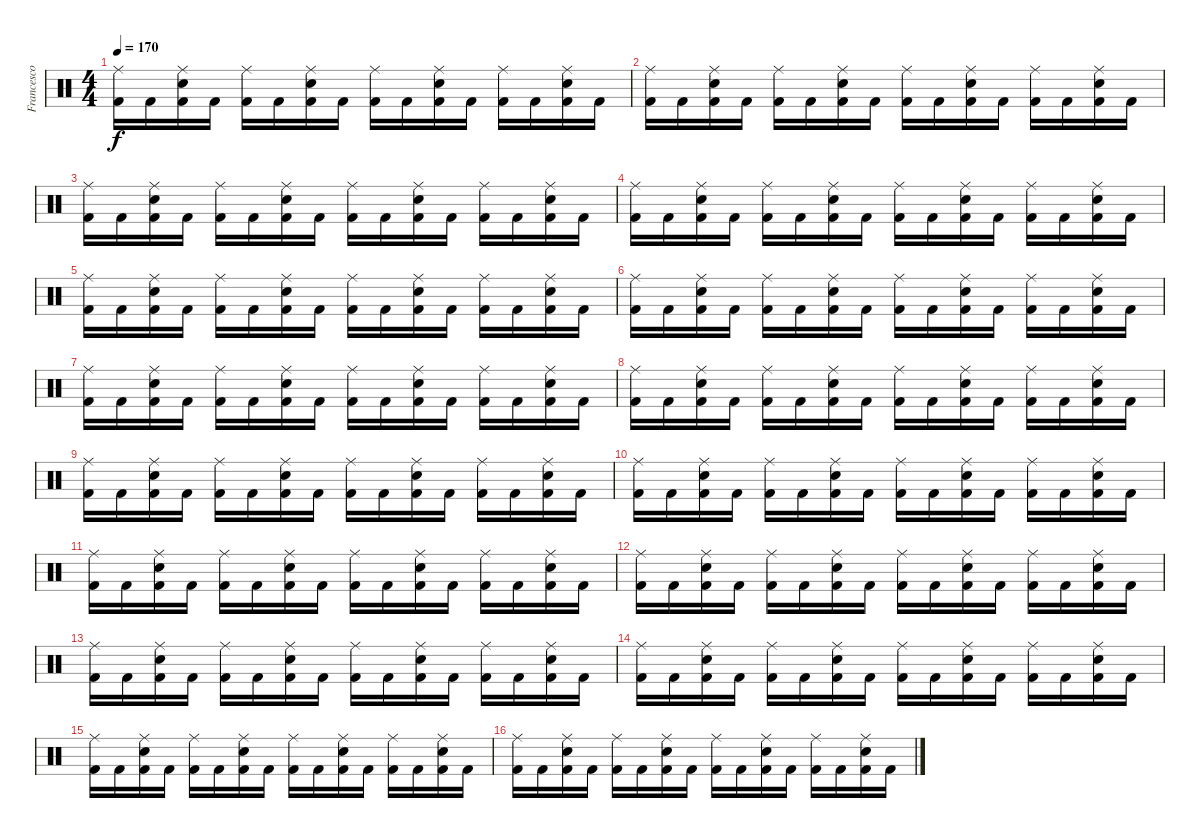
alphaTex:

\track ("Francesco Tresa" "Francesco ") {instrument percussion}
\staff {score}
\articulation defaults
\ts (4 4)
\tempo 170
\clef neutral
\ks c
("Ride (middle)" "Kick (hit) 2").16{dy f} "Kick (hit) 2".16 ("Ride (middle)" "Kick (hit) 2" "Electric Snare (hit)").16 "Kick (hit) 2".16 ("Ride (middle)" "Kick (hit) 2").16 "Kick (hit) 2".16 ("Ride (middle)" "Kick (hit) 2" "Electric Snare (hit)").16 "Kick (hit) 2".16 ("Ride (middle)" "Kick (hit) 2").16 "Kick (hit) 2".16 ("Ride (middle)" "Kick (hit) 2" "Electric Snare (hit)").16 "Kick (hit) 2".16 ("Ride (middle)" "Kick (hit) 2").16 "Kick (hit) 2".16 ("Ride (middle)" "Kick (hit) 2" "Electric Snare (hit)").16 "Kick (hit) 2".16 |
("Ride (middle)" "Kick (hit) 2").16 "Kick (hit) 2".16 ("Ride (middle)" "Kick (hit) 2" "Electric Snare (hit)").16 "Kick (hit) 2".16 ("Ride (middle)" "Kick (hit) 2").16 "Kick (hit) 2".16 ("Ride (middle)" "Kick (hit) 2" "Electric Snare (hit)").16 "Kick (hit) 2".16 ("Ride (middle)" "Kick (hit) 2").16 "Kick (hit) 2".16 ("Ride (middle)" "Kick (hit) 2" "Electric Snare (hit)").16 "Kick (hit) 2".16 ("Ride (middle)" "Kick (hit) 2").16 "Kick (hit) 2".16 ("Ride (middle)" "Kick (hit) 2" "Electric Snare (hit)").16 "Kick (hit) 2".16 |
("Ride (middle)" "Kick (hit) 2").16 "Kick (hit) 2".16 ("Ride (middle)" "Kick (hit) 2" "Electric Snare (hit)").16 "Kick (hit) 2".16 ("Ride (middle)" "Kick (hit) 2").16 "Kick (hit) 2".16 ("Ride (middle)" "Kick (hit) 2" "Electric Snare (hit)").16 "Kick (hit) 2".16 ("Ride (middle)" "Kick (hit) 2").16 "Kick (hit) 2".16 ("Ride (middle)" "Kick (hit) 2" "Electric Snare (hit)").16 "Kick (hit) 2".16 ("Ride (middle)" "Kick (hit) 2").16 "Kick (hit) 2".16 ("Ride (middle)" "Kick (hit) 2" "Electric Snare (hit)").16 "Kick (hit) 2".16 |
("Ride (middle)" "Kick (hit) 2").16 "Kick (hit) 2".16 ("Ride (middle)" "Kick (hit) 2" "Electric Snare (hit)").16 "Kick (hit) 2".16 ("Ride (middle)" "Kick (hit) 2").16 "Kick (hit) 2".16 ("Ride (middle)" "Kick (hit) 2" "Electric Snare (hit)").16 "Kick (hit) 2".16 ("Ride (middle)" "Kick (hit) 2").16 "Kick (hit) 2".16 ("Ride (middle)" "Kick (hit) 2" "Electric Snare (hit)").16 "Kick (hit) 2".16 ("Ride (middle)" "Kick (hit) 2").16 "Kick (hit) 2".16 ("Ride (middle)" "Kick (hit) 2" "Electric Snare (hit)").16 "Kick (hit) 2".16 |
("Ride (middle)" "Kick (hit) 2").16 "Kick (hit) 2".16 ("Ride (middle)" "Kick (hit) 2" "Electric Snare (hit)").16 "Kick (hit) 2".16 ("Ride (middle)" "Kick (hit) 2").16 "Kick (hit) 2".16 ("Ride (middle)" "Kick (hit) 2" "Electric Snare (hit)").16 "Kick (hit) 2".16 ("Ride (middle)" "Kick (hit) 2").16 "Kick (hit) 2".16 ("Ride (middle)" "Kick (hit) 2" "Electric Snare (hit)").16 "Kick (hit) 2".16 ("Ride (middle)" "Kick (hit) 2").16 "Kick (hit) 2".16 ("Ride (middle)" "Kick (hit) 2" "Electric Snare (hit)").16 "Kick (hit) 2".16 |
("Ride (middle)" "Kick (hit) 2").16 "Kick (hit) 2".16 ("Ride (middle)" "Kick (hit) 2" "Electric Snare (hit)").16 "Kick (hit) 2".16 ("Ride (middle)" "Kick (hit) 2").16 "Kick (hit) 2".16 ("Ride (middle)" "Kick (hit) 2" "Electric Snare (hit)").16 "Kick (hit) 2".16 ("Ride (middle)" "Kick (hit) 2").16 "Kick (hit) 2".16 ("Ride (middle)" "Kick (hit) 2" "Electric Snare (hit)").16 "Kick (hit) 2".16 ("Ride (middle)" "Kick (hit) 2").16 "Kick (hit) 2".16 ("Ride (middle)" "Kick (hit) 2" "Electric Snare (hit)").16 "Kick (hit) 2".16 |
("Ride (middle)" "Kick (hit) 2").16 "Kick (hit) 2".16 ("Ride (middle)" "Kick (hit) 2" "Electric Snare (hit)").16 "Kick (hit) 2".16 ("Ride (middle)" "Kick (hit) 2").16 "Kick (hit) 2".16 ("Ride (middle)" "Kick (hit) 2" "Electric Snare (hit)").16 "Kick (hit) 2".16 ("Ride (middle)" "Kick (hit) 2").16 "Kick (hit) 2".16 ("Ride (middle)" "Kick (hit) 2" "Electric Snare (hit)").16 "Kick (hit) 2".16 ("Ride (middle)" "Kick (hit) 2").16 "Kick (hit) 2".16 ("Ride (middle)" "Kick (hit) 2" "Electric Snare (hit)").16 "Kick (hit) 2".16 |
("Ride (middle)" "Kick (hit) 2").16 "Kick (hit) 2".16 ("Ride (middle)" "Kick (hit) 2" "Electric Snare (hit)").16 "Kick (hit) 2".16 ("Ride (middle)" "Kick (hit) 2").16 "Kick (hit) 2".16 ("Ride (middle)" "Kick (hit) 2" "Electric Snare (hit)").16 "Kick (hit) 2".16 ("Ride (middle)" "Kick (hit) 2").16 "Kick (hit) 2".16 ("Ride (middle)" "Kick (hit) 2" "Electric Snare (hit)").16 "Kick (hit) 2".16 ("Ride (middle)" "Kick (hit) 2").16 "Kick (hit) 2".16 ("Ride (middle)" "Kick (hit) 2" "Electric Snare (hit)").16 "Kick (hit) 2".16 |
("Ride (middle)" "Kick (hit) 2").16 "Kick (hit) 2".16 ("Ride (middle)" "Kick (hit) 2" "Electric Snare (hit)").16 "Kick (hit) 2".16 ("Ride (middle)" "Kick (hit) 2").16 "Kick (hit) 2".16 ("Ride (middle)" "Kick (hit) 2" "Electric Snare (hit)").16 "Kick (hit) 2".16 ("Ride (middle)" "Kick (hit) 2").16 "Kick (hit) 2".16 ("Ride (middle)" "Kick (hit) 2" "Electric Snare (hit)").16 "Kick (hit) 2".16 ("Ride (middle)" "Kick (hit) 2").16 "Kick (hit) 2".16 ("Ride (middle)" "Kick (hit) 2" "Electric Snare (hit)").16 "Kick (hit) 2".16 |
("Ride (middle)" "Kick (hit) 2").16 "Kick (hit) 2".16 ("Ride (middle)" "Kick (hit) 2" "Electric Snare (hit)").16 "Kick (hit) 2".16 ("Ride (middle)" "Kick (hit) 2").16 "Kick (hit) 2".16 ("Ride (middle)" "Kick (hit) 2" "Electric Snare (hit)").16 "Kick (hit) 2".16 ("Ride (middle)" "Kick (hit) 2").16 "Kick (hit) 2".16 ("Ride (middle)" "Kick (hit) 2" "Electric Snare (hit)").16 "Kick (hit) 2".16 ("Ride (middle)" "Kick (hit) 2").16 "Kick (hit) 2".16 ("Ride (middle)" "Kick (hit) 2" "Electric Snare (hit)").16 "Kick (hit) 2".16 |
("Ride (middle)" "Kick (hit) 2").16 "Kick (hit) 2".16 ("Ride (middle)" "Kick (hit) 2" "Electric Snare (hit)").16 "Kick (hit) 2".16 ("Ride (middle)" "Kick (hit) 2").16 "Kick (hit) 2".16 ("Ride (middle)" "Kick (hit) 2" "Electric Snare (hit)").16 "Kick (hit) 2".16 ("Ride (middle)" "Kick (hit) 2").16 "Kick (hit) 2".16 ("Ride (middle)" "Kick (hit) 2" "Electric Snare (hit)").16 "Kick (hit) 2".16 ("Ride (middle)" "Kick (hit) 2").16 "Kick (hit) 2".16 ("Ride (middle)" "Kick (hit) 2" "Electric Snare (hit)").16 "Kick (hit) 2".16 |
("Ride (middle)" "Kick (hit) 2").16 "Kick (hit) 2".16 ("Ride (middle)" "Kick (hit) 2" "Electric Snare (hit)").16 "Kick (hit) 2".16 ("Ride (middle)" "Kick (hit) 2").16 "Kick (hit) 2".16 ("Ride (middle)" "Kick (hit) 2" "Electric Snare (hit)").16 "Kick (hit) 2".16 ("Ride (middle)" "Kick (hit) 2").16 "Kick (hit) 2".16 ("Ride (middle)" "Kick (hit) 2" "Electric Snare (hit)").16 "Kick (hit) 2".16 ("Ride (middle)" "Kick (hit) 2").16 "Kick (hit) 2".16 ("Ride (middle)" "Kick (hit) 2" "Electric Snare (hit)").16 "Kick (hit) 2".16 |
("Ride (middle)" "Kick (hit) 2").16 "Kick (hit) 2".16 ("Ride (middle)" "Kick (hit) 2" "Electric Snare (hit)").16 "Kick (hit) 2".16 ("Ride (middle)" "Kick (hit) 2").16 "Kick (hit) 2".16 ("Ride (middle)" "Kick (hit) 2" "Electric Snare (hit)").16 "Kick (hit) 2".16 ("Ride (middle)" "Kick (hit) 2").16 "Kick (hit) 2".16 ("Ride (middle)" "Kick (hit) 2" "Electric Snare (hit)").16 "Kick (hit) 2".16 ("Ride (middle)" "Kick (hit) 2").16 "Kick (hit) 2".16 ("Ride (middle)" "Kick (hit) 2" "Electric Snare (hit)").16 "Kick (hit) 2".16 |
("Ride (middle)" "Kick (hit) 2").16 "Kick (hit) 2".16 ("Ride (middle)" "Kick (hit) 2" "Electric Snare (hit)").16 "Kick (hit) 2".16 ("Ride (middle)" "Kick (hit) 2").16 "Kick (hit) 2".16 ("Ride (middle)" "Kick (hit) 2" "Electric Snare (hit)").16 "Kick (hit) 2".16 ("Ride (middle)" "Kick (hit) 2").16 "Kick (hit) 2".16 ("Ride (middle)" "Kick (hit) 2" "Electric Snare (hit)").16 "Kick (hit) 2".16 ("Ride (middle)" "Kick (hit) 2").16 "Kick (hit) 2".16 ("Ride (middle)" "Kick (hit) 2" "Electric Snare (hit)").16 "Kick (hit) 2".16 |
("Ride (middle)" "Kick (hit) 2").16 "Kick (hit) 2".16 ("Ride (middle)" "Kick (hit) 2" "Electric Snare (hit)").16 "Kick (hit) 2".16 ("Ride (middle)" "Kick (hit) 2").16 "Kick (hit) 2".16 ("Ride (middle)" "Kick (hit) 2" "Electric Snare (hit)").16 "Kick (hit) 2".16 ("Ride (middle)" "Kick (hit) 2").16 "Kick (hit) 2".16 ("Ride (middle)" "Kick (hit) 2" "Electric Snare (hit)").16 "Kick (hit) 2".16 ("Ride (middle)" "Kick (hit) 2").16 "Kick (hit) 2".16 ("Ride (middle)" "Kick (hit) 2" "Electric Snare (hit)").16 "Kick (hit) 2".16 |
("Ride (middle)" "Kick (hit) 2").16 "Kick (hit) 2".16 ("Ride (middle)" "Kick (hit) 2" "Electric Snare (hit)").16 "Kick (hit) 2".16 ("Ride (middle)" "Kick (hit) 2").16 "Kick (hit) 2".16 ("Ride (middle)" "Kick (hit) 2" "Electric Snare (hit)").16 "Kick (hit) 2".16 ("Ride (middle)" "Kick (hit) 2").16 "Kick (hit) 2".16 ("Ride (middle)" "Kick (hit) 2" "Electric Snare (hit)").16 "Kick (hit) 2".16 ("Ride (middle)" "Kick (hit) 2").16 "Kick (hit) 2".16 ("Ride (middle)" "Kick (hit) 2" "Electric Snare (hit)").16 "Kick (hit) 2".16
